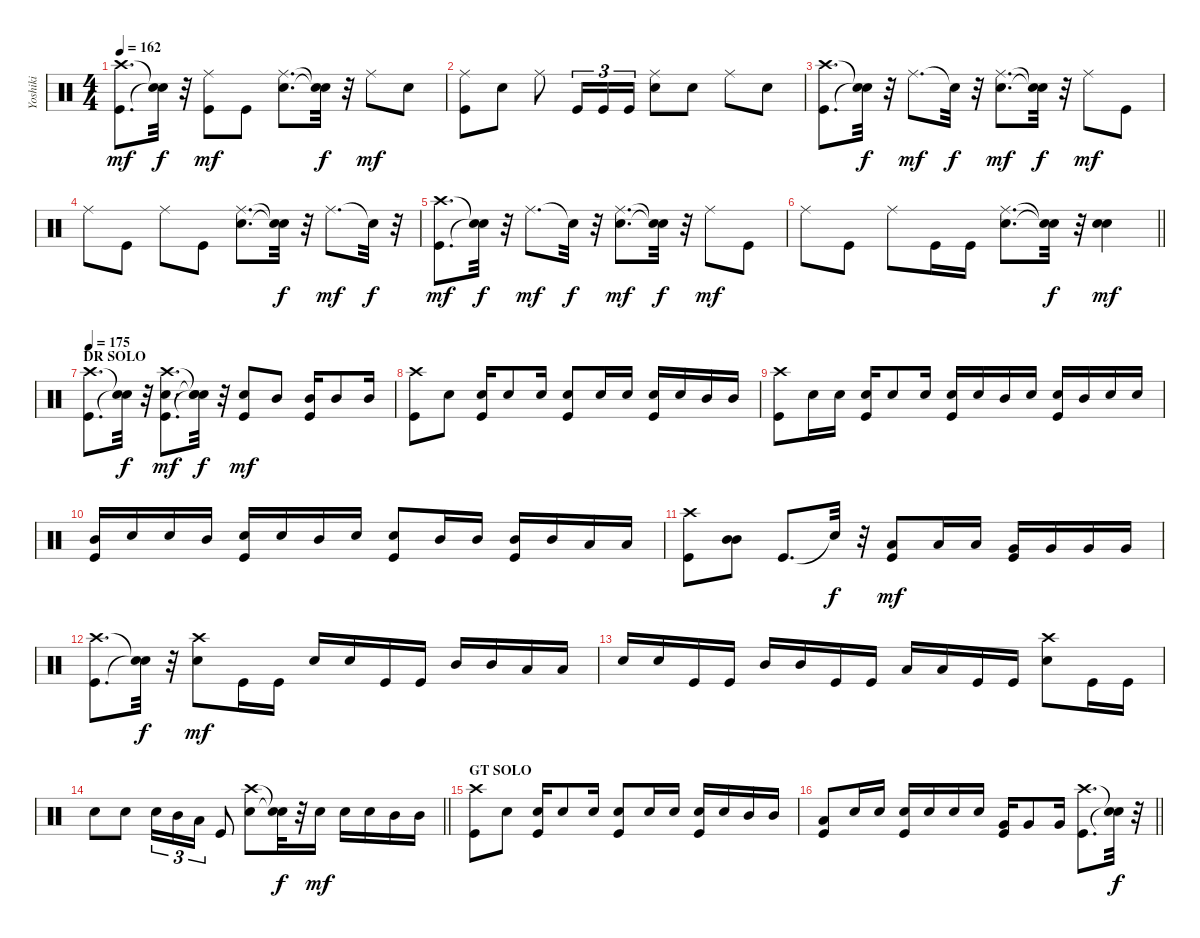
\track ("Yoshiki" "Yoshiki") {instrument percussion}
\staff {score}
\articulation defaults
\ts (4 4)
\tempo 162
\clef neutral
\ks c
("Crash high (hit)" "Kick (hit)").8{d dy mf} ("Snare (hit)"{t} "Snare (hit)"{t}).32{dy f} r.32 ("Ride (middle)" "Kick (hit)").8{dy mf} "Kick (hit)".8 ("Snare (hit) 2" "Ride (middle)").8{d} ("Snare (hit)"{t} "Snare (hit)"{t}).32{dy f} r.32 "Ride (middle)".8{dy mf} "Snare (hit) 2".8 |
("Kick (hit)" "Ride (middle)").8 "Snare (hit) 2".8 "Ride (middle)".8 "Kick (hit)".16{tu (3 2)} "Kick (hit)".16{tu (3 2)} "Kick (hit)".16{tu (3 2)} ("Snare (hit) 2" "Ride (middle)").8 "Snare (hit) 2".8 "Ride (middle)".8 "Snare (hit) 2".8 |
("Crash high (hit)" "Kick (hit)").8{d} ("Snare (hit)"{t} "Snare (hit)"{t}).32{dy f} r.32 "Ride (middle)".8{d dy mf} "Snare (hit)"{t}.32{dy f} r.32 ("Snare (hit) 2" "Ride (middle)").8{d dy mf} ("Snare (hit)"{t} "Snare (hit)"{t}).32{dy f} r.32 "Ride (middle)".8{dy mf} "Kick (hit)".8 |
"Ride (middle)".8 "Kick (hit)".8 "Ride (middle)".8 "Kick (hit)".8 ("Snare (hit) 2" "Ride (middle)").8{d} ("Snare (hit)"{t} "Snare (hit)"{t}).32{dy f} r.32 "Ride (middle)".8{d dy mf} "Snare (hit)"{t}.32{dy f} r.32 |
("Crash high (hit)" "Kick (hit)").8{d dy mf} ("Snare (hit)"{t} "Snare (hit)"{t}).32{dy f} r.32 "Ride (middle)".8{d dy mf} "Snare (hit)"{t}.32{dy f} r.32 ("Snare (hit) 2" "Ride (middle)").8{d dy mf} ("Snare (hit)"{t} "Snare (hit)"{t}).32{dy f} r.32 "Ride (middle)".8{dy mf} "Kick (hit)".8 |
\barLineRight lightlight "Ride (middle)".8 "Kick (hit)".8 "Ride (middle)".8 "Kick (hit)".16 "Kick (hit)".16
("Snare (hit) 2" "Ride (middle)").8{d} ("Snare (hit)"{t} "Snare (hit)"{t}).32{dy f} r.32 ("Snare (hit) 2" "Snare (hit) 2").4{dy mf} |
\section ("" "DR SOLO")
\tempo 175
("Crash high (hit)" "Kick (hit)").8{d} ("Snare (hit)"{t} "Snare (hit)"{t}).32{dy f} r.32 ("Snare (hit) 2" "Crash high (hit)" "Kick (hit)").8{d dy mf} ("Snare (hit)"{t} "Snare (hit)"{t} "Snare (hit)"{t}).32{dy f} r.32 ("Kick (hit)" "Snare (hit) 2").8{dy mf} "Mid Tom (hit)".8 ("Kick (hit)" "Mid Tom (hit)").16 "Mid Tom (hit)".8 "Mid Tom (hit)".16 |
("Kick (hit)" "Crash high (hit)").8 "Snare (hit) 2".8 ("Kick (hit)" "Snare (hit) 2").16 "Snare (hit) 2".8 "Snare (hit) 2".16 ("Kick (hit)" "Snare (hit) 2").8 "Snare (hit) 2".16 "Snare (hit) 2".16 ("Kick (hit)" "Snare (hit) 2").16 "Snare (hit) 2".16 "Mid Tom (hit)".16 "Mid Tom (hit)".16 |
("Kick (hit)" "Crash high (hit)").8 "Snare (hit) 2".16 "Snare (hit) 2".16 ("Kick (hit)" "Snare (hit) 2").16 "Snare (hit) 2".8 "Snare (hit) 2".16 ("Kick (hit)" "Snare (hit) 2").16 "Snare (hit) 2".16 "Mid Tom (hit)".16 "Snare (hit) 2".16 ("Kick (hit)" "Snare (hit) 2").16 "Mid Tom (hit)".16 "Snare (hit) 2".16 "Snare (hit) 2".16 |
("Kick (hit)" "Mid Tom (hit)").16 "Snare (hit) 2".16 "Snare (hit) 2".16 "Mid Tom (hit)".16 ("Kick (hit)" "Snare (hit) 2").16 "Snare (hit) 2".16 "Mid Tom (hit)".16 "Snare (hit) 2".16 ("Snare (hit) 2" "Kick (hit)").8 "Mid Tom (hit)".16 "Mid Tom (hit)".16 ("Mid Tom (hit)" "Kick (hit)").16 "Mid Tom (hit)".16 "Low Tom (hit)".16 "Low Tom (hit)".16 |
("Kick (hit)" "Crash high (hit)").8 ("Mid Tom (hit)" "Mid Tom (hit)").8 "Kick (hit)".8{d} "Snare (hit)"{t}.32{dy f} r.32 ("Kick (hit)" "Low Tom (hit)").8{dy mf} "Low Tom (hit)".16 "Low Tom (hit)".16 ("Kick (hit)" "Very Low Tom (hit)").16 "Very Low Tom (hit)".16 "Very Low Tom (hit)".16 "Very Low Tom (hit)".16 |
("Kick (hit)" "Crash high (hit)").8{d} ("Snare (hit)"{t} "Snare (hit)"{t}).32{dy f} r.32 ("Snare (hit) 2" "Crash high (hit)").8{dy mf} "Kick (hit)".16 "Kick (hit)".16 "Snare (hit) 2".16 "Snare (hit) 2".16 "Kick (hit)".16 "Kick (hit)".16 "Mid Tom (hit)".16 "Mid Tom (hit)".16 "Low Tom (hit)".16 "Low Tom (hit)".16 |
"Snare (hit) 2".16 "Snare (hit) 2".16 "Kick (hit)".16 "Kick (hit)".16 "Mid Tom (hit)".16 "Mid Tom (hit)".16 "Kick (hit)".16 "Kick (hit)".16 "Low Tom (hit)".16 "Low Tom (hit)".16 "Kick (hit)".16 "Kick (hit)".16 ("Snare (hit) 2" "Crash high (hit)").8 "Kick (hit)".16 "Kick (hit)".16 |
\barLineRight lightlight "Snare (hit) 2".8 "Snare (hit) 2".8 "Snare (hit) 2".16{tu (3 2)} "Mid Tom (hit)".16{tu (3 2)} "Low Tom (hit)".16{tu (3 2)} "Kick (hit)".8
("Snare (hit) 2" "Crash high (hit)").8 ("Snare (hit)"{t} "Snare (hit)"{t}).32{dy f} r.32 "Snare (hit) 2".16{dy mf} "Snare (hit) 2".16 "Snare (hit) 2".16 "Mid Tom (hit)".16 "Mid Tom (hit)".16 |
\section ("" "GT SOLO")
("Kick (hit)" "Crash high (hit)").8 "Snare (hit) 2".8 ("Kick (hit)" "Snare (hit) 2").16 "Snare (hit) 2".8 "Snare (hit) 2".16 ("Kick (hit)" "Snare (hit) 2").8 "Snare (hit) 2".16 "Snare (hit) 2".16 ("Kick (hit)" "Snare (hit) 2").16 "Snare (hit) 2".16 "Mid Tom (hit)".16 "Mid Tom (hit)".16 |
\barLineRight lightlight
("Kick (hit)" "Low Tom (hit)").8 "Snare (hit) 2".16 "Snare (hit) 2".16 ("Kick (hit)" "Snare (hit) 2").16 "Snare (hit) 2".16 "Snare (hit) 2".16 "Snare (hit) 2".16 ("Kick (hit)" "Very Low Tom (hit)").16 "Very Low Tom (hit)".8 "Very Low Tom (hit)".16 ("Kick (hit)" "Crash high (hit)").8{d} ("Snare (hit)"{t} "Snare (hit)"{t}).32{dy f} r.32
